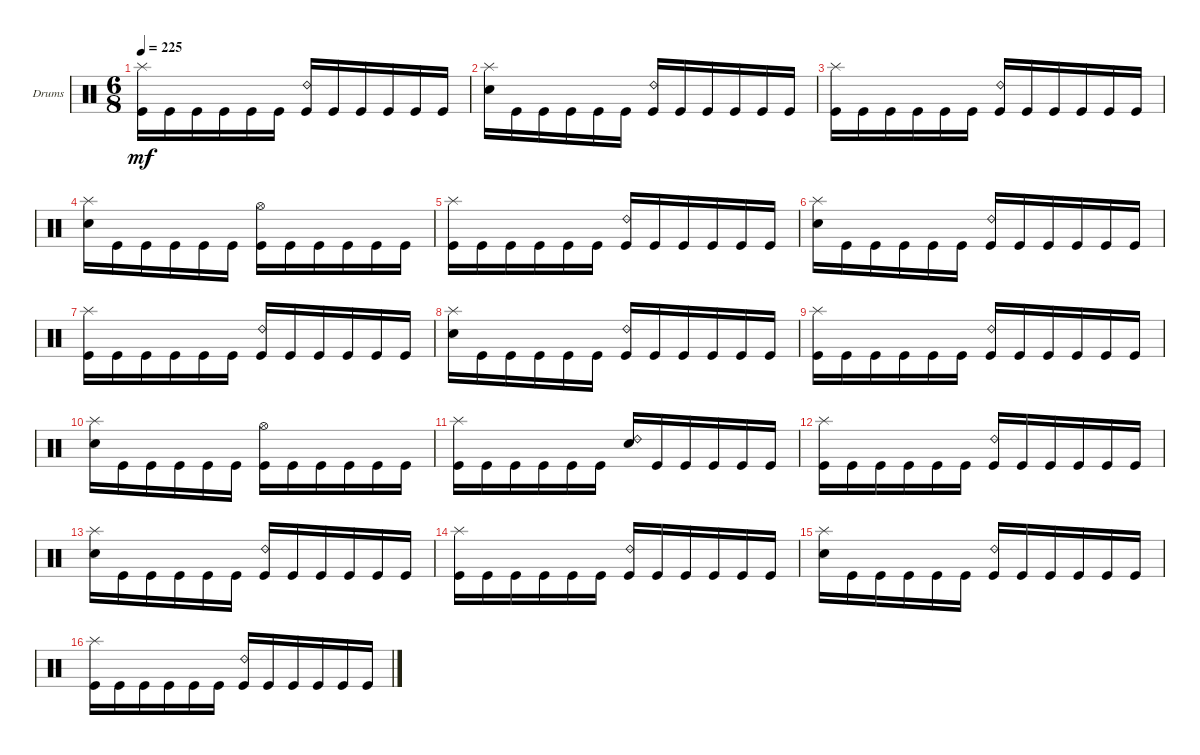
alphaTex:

\bracketExtendMode groupsimilarinstruments
\firstSystemTrackNameOrientation horizontal
\otherSystemsTrackNameOrientation horizontal
\track ("Drumkit" "Drums") {solo instrument percussion}
\staff {score}
\articulation defaults
\ts (6 8)
\tempo 225
\clef neutral
\ks c
("Kick (hit)" "Splash (hit)").16{dy mf} "Kick (hit)".16 "Kick (hit)".16 "Kick (hit)".16 "Kick (hit)".16 "Kick (hit)".16 ("Kick (hit)" "Ride (bell) 2").16 "Kick (hit)".16 "Kick (hit)".16 "Kick (hit)".16 "Kick (hit)".16 "Kick (hit)".16 |
("Snare (hit) 2" "Splash (hit)").16 "Kick (hit)".16 "Kick (hit)".16 "Kick (hit)".16 "Kick (hit)".16 "Kick (hit)".16 ("Kick (hit)" "Ride (bell) 2").16 "Kick (hit)".16 "Kick (hit)".16 "Kick (hit)".16 "Kick (hit)".16 "Kick (hit)".16 |
("Kick (hit)" "Splash (hit)").16 "Kick (hit)".16 "Kick (hit)".16 "Kick (hit)".16 "Kick (hit)".16 "Kick (hit)".16 ("Kick (hit)" "Ride (bell) 2").16 "Kick (hit)".16 "Kick (hit)".16 "Kick (hit)".16 "Kick (hit)".16 "Kick (hit)".16 |
("Snare (hit) 2" "Splash (hit)").16 "Kick (hit)".16 "Kick (hit)".16 "Kick (hit)".16 "Kick (hit)".16 "Kick (hit)".16 ("Kick (hit)" "Hi-Hat (open)").16 "Kick (hit)".16 "Kick (hit)".16 "Kick (hit)".16 "Kick (hit)".16 "Kick (hit)".16 |
("Kick (hit)" "Splash (hit)").16 "Kick (hit)".16 "Kick (hit)".16 "Kick (hit)".16 "Kick (hit)".16 "Kick (hit)".16 ("Kick (hit)" "Ride (bell) 2").16 "Kick (hit)".16 "Kick (hit)".16 "Kick (hit)".16 "Kick (hit)".16 "Kick (hit)".16 |
("Snare (hit) 2" "Splash (hit)").16 "Kick (hit)".16 "Kick (hit)".16 "Kick (hit)".16 "Kick (hit)".16 "Kick (hit)".16 ("Kick (hit)" "Ride (bell) 2").16 "Kick (hit)".16 "Kick (hit)".16 "Kick (hit)".16 "Kick (hit)".16 "Kick (hit)".16 |
("Kick (hit)" "Splash (hit)").16 "Kick (hit)".16 "Kick (hit)".16 "Kick (hit)".16 "Kick (hit)".16 "Kick (hit)".16 ("Kick (hit)" "Ride (bell) 2").16 "Kick (hit)".16 "Kick (hit)".16 "Kick (hit)".16 "Kick (hit)".16 "Kick (hit)".16 |
("Snare (hit) 2" "Splash (hit)").16 "Kick (hit)".16 "Kick (hit)".16 "Kick (hit)".16 "Kick (hit)".16 "Kick (hit)".16 ("Kick (hit)" "Ride (bell) 2").16 "Kick (hit)".16 "Kick (hit)".16 "Kick (hit)".16 "Kick (hit)".16 "Kick (hit)".16 |
("Kick (hit)" "Splash (hit)").16 "Kick (hit)".16 "Kick (hit)".16 "Kick (hit)".16 "Kick (hit)".16 "Kick (hit)".16 ("Kick (hit)" "Ride (bell) 2").16 "Kick (hit)".16 "Kick (hit)".16 "Kick (hit)".16 "Kick (hit)".16 "Kick (hit)".16 |
("Snare (hit) 2" "Splash (hit)").16 "Kick (hit)".16 "Kick (hit)".16 "Kick (hit)".16 "Kick (hit)".16 "Kick (hit)".16 ("Kick (hit)" "Hi-Hat (open)").16 "Kick (hit)".16 "Kick (hit)".16 "Kick (hit)".16 "Kick (hit)".16 "Kick (hit)".16 |
("Kick (hit)" "Splash (hit)").16 "Kick (hit)".16 "Kick (hit)".16 "Kick (hit)".16 "Kick (hit)".16 "Kick (hit)".16 ("Snare (hit) 2" "Ride (bell) 2").16 "Kick (hit)".16 "Kick (hit)".16 "Kick (hit)".16 "Kick (hit)".16 "Kick (hit)".16 |
("Kick (hit)" "Splash (hit)").16 "Kick (hit)".16 "Kick (hit)".16 "Kick (hit)".16 "Kick (hit)".16 "Kick (hit)".16 ("Kick (hit)" "Ride (bell) 2").16 "Kick (hit)".16 "Kick (hit)".16 "Kick (hit)".16 "Kick (hit)".16 "Kick (hit)".16 |
("Snare (hit) 2" "Splash (hit)").16 "Kick (hit)".16 "Kick (hit)".16 "Kick (hit)".16 "Kick (hit)".16 "Kick (hit)".16 ("Kick (hit)" "Ride (bell) 2").16 "Kick (hit)".16 "Kick (hit)".16 "Kick (hit)".16 "Kick (hit)".16 "Kick (hit)".16 |
("Kick (hit)" "Splash (hit)").16 "Kick (hit)".16 "Kick (hit)".16 "Kick (hit)".16 "Kick (hit)".16 "Kick (hit)".16 ("Kick (hit)" "Ride (bell) 2").16 "Kick (hit)".16 "Kick (hit)".16 "Kick (hit)".16 "Kick (hit)".16 "Kick (hit)".16 |
("Snare (hit) 2" "Splash (hit)").16 "Kick (hit)".16 "Kick (hit)".16 "Kick (hit)".16 "Kick (hit)".16 "Kick (hit)".16 ("Kick (hit)" "Ride (bell) 2").16 "Kick (hit)".16 "Kick (hit)".16 "Kick (hit)".16 "Kick (hit)".16 "Kick (hit)".16 |
("Kick (hit)" "Splash (hit)").16 "Kick (hit)".16 "Kick (hit)".16 "Kick (hit)".16 "Kick (hit)".16 "Kick (hit)".16 ("Kick (hit)" "Ride (bell) 2").16 "Kick (hit)".16 "Kick (hit)".16 "Kick (hit)".16 "Kick (hit)".16 "Kick (hit)".16
